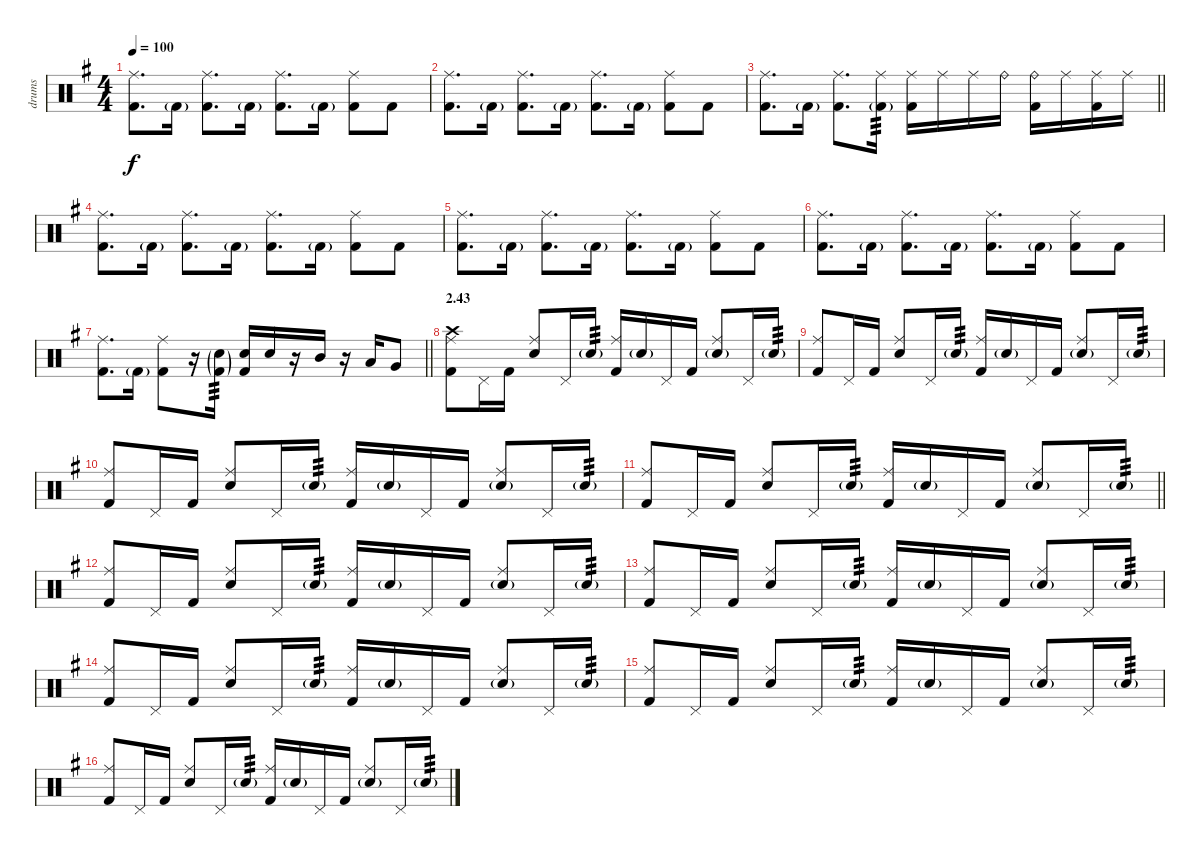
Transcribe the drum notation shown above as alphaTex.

\track ("drums" "drums") {instrument percussion}
\staff {score}
\articulation defaults
\ts (4 4)
\tempo 100
\clef neutral
\ks g
("Ride (middle)" "Kick (hit) 2").8{d dy f} "Kick (hit) 2"{g}.16 ("Ride (middle)" "Kick (hit) 2").8{d} "Kick (hit) 2"{g}.16 ("Ride (middle)" "Kick (hit) 2").8{d} "Kick (hit) 2"{g}.16 ("Ride (middle)" "Kick (hit) 2").8 "Kick (hit) 2".8 |
("Ride (middle)" "Kick (hit) 2").8{d} "Kick (hit) 2"{g}.16 ("Ride (middle)" "Kick (hit) 2").8{d} "Kick (hit) 2"{g}.16 ("Ride (middle)" "Kick (hit) 2").8{d} "Kick (hit) 2"{g}.16 ("Ride (middle)" "Kick (hit) 2").8 "Kick (hit) 2".8 |
\barLineRight lightlight
("Ride (middle)" "Kick (hit) 2").8{d} "Kick (hit) 2"{g}.16 ("Ride (middle)" "Kick (hit) 2").8{d} ("Ride (middle)" "Kick (hit) 2"{g}).16{tp 3} ("Ride (middle)" "Kick (hit) 2").16 "Ride (middle)".16 "Ride (middle)".16 "Ride (bell)".16 ("Ride (bell)" "Kick (hit) 2").16 "Ride (middle)".16 ("Ride (middle)" "Kick (hit) 2").16 "Ride (middle)".16 |
("Ride (middle)" "Kick (hit) 2").8{d} "Kick (hit) 2"{g}.16 ("Ride (middle)" "Kick (hit) 2").8{d} "Kick (hit) 2"{g}.16 ("Ride (middle)" "Kick (hit) 2").8{d} "Kick (hit) 2"{g}.16 ("Ride (middle)" "Kick (hit) 2").8 "Kick (hit) 2".8 |
("Ride (middle)" "Kick (hit) 2").8{d} "Kick (hit) 2"{g}.16 ("Ride (middle)" "Kick (hit) 2").8{d} "Kick (hit) 2"{g}.16 ("Ride (middle)" "Kick (hit) 2").8{d} "Kick (hit) 2"{g}.16 ("Ride (middle)" "Kick (hit) 2").8 "Kick (hit) 2".8 |
("Ride (middle)" "Kick (hit) 2").8{d} "Kick (hit) 2"{g}.16 ("Ride (middle)" "Kick (hit) 2").8{d} "Kick (hit) 2"{g}.16 ("Ride (middle)" "Kick (hit) 2").8{d} "Kick (hit) 2"{g}.16 ("Ride (middle)" "Kick (hit) 2").8 "Kick (hit) 2".8 |
\barLineRight lightlight
("Ride (middle)" "Kick (hit) 2").8{d} "Kick (hit) 2"{g}.16 ("Ride (middle)" "Kick (hit) 2").8 r.16 ("Electric Snare (hit)"{g} "Kick (hit) 2"{g}).16{tp 3} ("Electric Snare (hit)" "Kick (hit) 2").16 "Electric Snare (hit)".16 r.16 "Mid Tom (hit)".16 r.16 "Low Tom (hit)".16 "Very Low Tom (hit)".8 |
\section ("" "2.43")
("Ride (middle)" "Crash high (hit)" "Kick (hit) 2").8 "Pedal Hi-Hat (hit)".16 "Kick (hit) 2".16 ("Ride (middle)" "Electric Snare (hit)").8 "Pedal Hi-Hat (hit)".16 "Electric Snare (hit)"{g}.16{tp 3} ("Ride (middle)" "Kick (hit) 2").16 "Electric Snare (hit)"{g}.16 "Pedal Hi-Hat (hit)".16 "Kick (hit) 2".16 ("Ride (middle)" "Electric Snare (hit)"{g}).8 "Pedal Hi-Hat (hit)".16 "Electric Snare (hit)"{g}.16{tp 3} |
("Ride (middle)" "Kick (hit) 2").8 "Pedal Hi-Hat (hit)".16 "Kick (hit) 2".16 ("Ride (middle)" "Electric Snare (hit)").8 "Pedal Hi-Hat (hit)".16 "Electric Snare (hit)"{g}.16{tp 3} ("Ride (middle)" "Kick (hit) 2").16 "Electric Snare (hit)"{g}.16 "Pedal Hi-Hat (hit)".16 "Kick (hit) 2".16 ("Ride (middle)" "Electric Snare (hit)"{g}).8 "Pedal Hi-Hat (hit)".16 "Electric Snare (hit)"{g}.16{tp 3} |
("Ride (middle)" "Kick (hit) 2").8 "Pedal Hi-Hat (hit)".16 "Kick (hit) 2".16 ("Ride (middle)" "Electric Snare (hit)").8 "Pedal Hi-Hat (hit)".16 "Electric Snare (hit)"{g}.16{tp 3} ("Ride (middle)" "Kick (hit) 2").16 "Electric Snare (hit)"{g}.16 "Pedal Hi-Hat (hit)".16 "Kick (hit) 2".16 ("Ride (middle)" "Electric Snare (hit)"{g}).8 "Pedal Hi-Hat (hit)".16 "Electric Snare (hit)"{g}.16{tp 3} |
\barLineRight lightlight
("Ride (middle)" "Kick (hit) 2").8 "Pedal Hi-Hat (hit)".16 "Kick (hit) 2".16 ("Ride (middle)" "Electric Snare (hit)").8 "Pedal Hi-Hat (hit)".16 "Electric Snare (hit)"{g}.16{tp 3} ("Ride (middle)" "Kick (hit) 2").16 "Electric Snare (hit)"{g}.16 "Pedal Hi-Hat (hit)".16 "Kick (hit) 2".16 ("Ride (middle)" "Electric Snare (hit)"{g}).8 "Pedal Hi-Hat (hit)".16 "Electric Snare (hit)"{g}.16{tp 3} |
("Ride (middle)" "Kick (hit) 2").8 "Pedal Hi-Hat (hit)".16 "Kick (hit) 2".16 ("Ride (middle)" "Electric Snare (hit)").8 "Pedal Hi-Hat (hit)".16 "Electric Snare (hit)"{g}.16{tp 3} ("Ride (middle)" "Kick (hit) 2").16 "Electric Snare (hit)"{g}.16 "Pedal Hi-Hat (hit)".16 "Kick (hit) 2".16 ("Ride (middle)" "Electric Snare (hit)"{g}).8 "Pedal Hi-Hat (hit)".16 "Electric Snare (hit)"{g}.16{tp 3} |
("Ride (middle)" "Kick (hit) 2").8 "Pedal Hi-Hat (hit)".16 "Kick (hit) 2".16 ("Ride (middle)" "Electric Snare (hit)").8 "Pedal Hi-Hat (hit)".16 "Electric Snare (hit)"{g}.16{tp 3} ("Ride (middle)" "Kick (hit) 2").16 "Electric Snare (hit)"{g}.16 "Pedal Hi-Hat (hit)".16 "Kick (hit) 2".16 ("Ride (middle)" "Electric Snare (hit)"{g}).8 "Pedal Hi-Hat (hit)".16 "Electric Snare (hit)"{g}.16{tp 3} |
("Ride (middle)" "Kick (hit) 2").8 "Pedal Hi-Hat (hit)".16 "Kick (hit) 2".16 ("Ride (middle)" "Electric Snare (hit)").8 "Pedal Hi-Hat (hit)".16 "Electric Snare (hit)"{g}.16{tp 3} ("Ride (middle)" "Kick (hit) 2").16 "Electric Snare (hit)"{g}.16 "Pedal Hi-Hat (hit)".16 "Kick (hit) 2".16 ("Ride (middle)" "Electric Snare (hit)"{g}).8 "Pedal Hi-Hat (hit)".16 "Electric Snare (hit)"{g}.16{tp 3} |
("Ride (middle)" "Kick (hit) 2").8 "Pedal Hi-Hat (hit)".16 "Kick (hit) 2".16 ("Ride (middle)" "Electric Snare (hit)").8 "Pedal Hi-Hat (hit)".16 "Electric Snare (hit)"{g}.16{tp 3} ("Ride (middle)" "Kick (hit) 2").16 "Electric Snare (hit)"{g}.16 "Pedal Hi-Hat (hit)".16 "Kick (hit) 2".16 ("Ride (middle)" "Electric Snare (hit)"{g}).8 "Pedal Hi-Hat (hit)".16 "Electric Snare (hit)"{g}.16{tp 3} |
("Ride (middle)" "Kick (hit) 2").8 "Pedal Hi-Hat (hit)".16 "Kick (hit) 2".16 ("Ride (middle)" "Electric Snare (hit)").8 "Pedal Hi-Hat (hit)".16 "Electric Snare (hit)"{g}.16{tp 3} ("Ride (middle)" "Kick (hit) 2").16 "Electric Snare (hit)"{g}.16 "Pedal Hi-Hat (hit)".16 "Kick (hit) 2".16 ("Ride (middle)" "Electric Snare (hit)"{g}).8 "Pedal Hi-Hat (hit)".16 "Electric Snare (hit)"{g}.16{tp 3}
